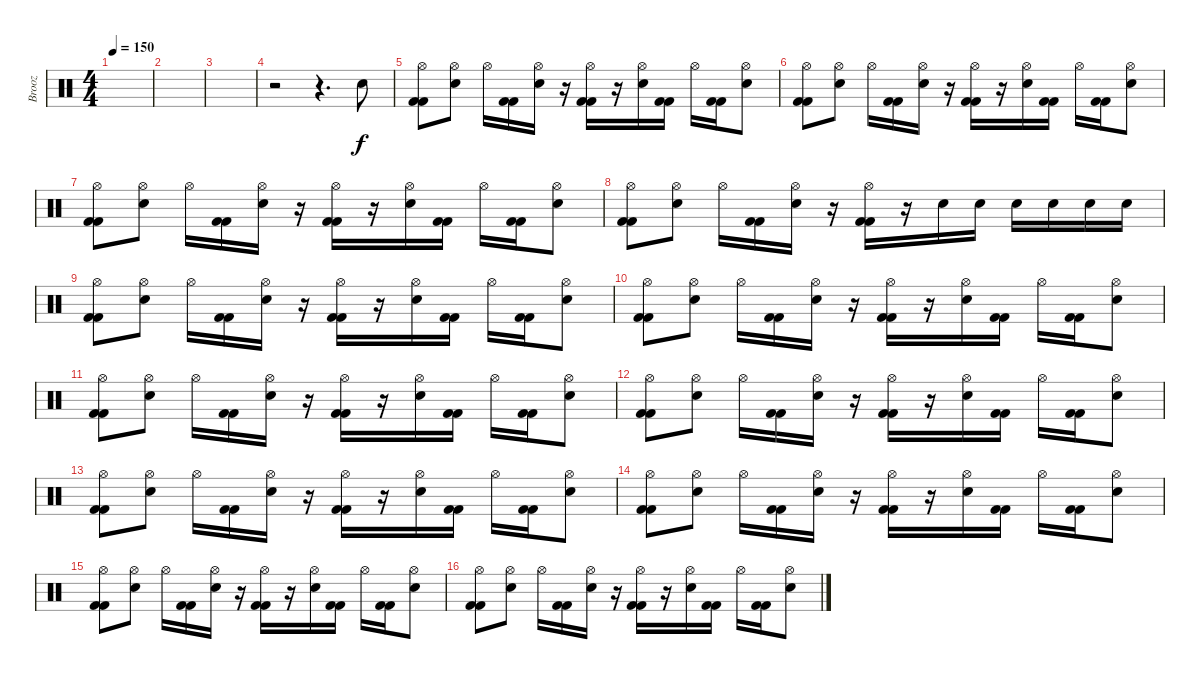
\track ("Brooz" "Brooz") {instrument percussion}
\staff {score}
\articulation defaults
\ts (4 4)
\tempo 150
\clef neutral
\ks c
|
|
|
r.2 r.4{d} "Electric Snare (hit)".8 |
("Hi-Hat (open)" "Kick (hit) 2" "Kick (hit) 2").8 ("Hi-Hat (open)" "Electric Snare (hit)").8 "Hi-Hat (open)".16 ("Kick (hit) 2" "Kick (hit) 2").16 ("Hi-Hat (open)" "Electric Snare (hit)").16 r.16 ("Hi-Hat (open)" "Kick (hit) 2" "Kick (hit) 2").16 r.16 ("Hi-Hat (open)" "Electric Snare (hit)").16 ("Kick (hit) 2" "Kick (hit) 2").16 "Hi-Hat (open)".16 ("Kick (hit) 2" "Kick (hit) 2").16 ("Hi-Hat (open)" "Electric Snare (hit)").8 |
("Hi-Hat (open)" "Kick (hit) 2" "Kick (hit) 2").8 ("Hi-Hat (open)" "Electric Snare (hit)").8 "Hi-Hat (open)".16 ("Kick (hit) 2" "Kick (hit) 2").16 ("Hi-Hat (open)" "Electric Snare (hit)").16 r.16 ("Hi-Hat (open)" "Kick (hit) 2" "Kick (hit) 2").16 r.16 ("Hi-Hat (open)" "Electric Snare (hit)").16 ("Kick (hit) 2" "Kick (hit) 2").16 "Hi-Hat (open)".16 ("Kick (hit) 2" "Kick (hit) 2").16 ("Hi-Hat (open)" "Electric Snare (hit)").8 |
("Hi-Hat (open)" "Kick (hit) 2" "Kick (hit) 2").8 ("Hi-Hat (open)" "Electric Snare (hit)").8 "Hi-Hat (open)".16 ("Kick (hit) 2" "Kick (hit) 2").16 ("Hi-Hat (open)" "Electric Snare (hit)").16 r.16 ("Hi-Hat (open)" "Kick (hit) 2" "Kick (hit) 2").16 r.16 ("Hi-Hat (open)" "Electric Snare (hit)").16 ("Kick (hit) 2" "Kick (hit) 2").16 "Hi-Hat (open)".16 ("Kick (hit) 2" "Kick (hit) 2").16 ("Hi-Hat (open)" "Electric Snare (hit)").8 |
("Hi-Hat (open)" "Kick (hit) 2" "Kick (hit) 2").8 ("Hi-Hat (open)" "Electric Snare (hit)").8 "Hi-Hat (open)".16 ("Kick (hit) 2" "Kick (hit) 2").16 ("Hi-Hat (open)" "Electric Snare (hit)").16 r.16 ("Hi-Hat (open)" "Kick (hit) 2" "Kick (hit) 2").16 r.16 "Electric Snare (hit)".16 "Electric Snare (hit)".16 "Electric Snare (hit)".16 "Electric Snare (hit)".16 "Electric Snare (hit)".16 "Electric Snare (hit)".16 |
("Hi-Hat (open)" "Kick (hit) 2" "Kick (hit) 2").8 ("Hi-Hat (open)" "Electric Snare (hit)").8 "Hi-Hat (open)".16 ("Kick (hit) 2" "Kick (hit) 2").16 ("Hi-Hat (open)" "Electric Snare (hit)").16 r.16 ("Hi-Hat (open)" "Kick (hit) 2" "Kick (hit) 2").16 r.16 ("Hi-Hat (open)" "Electric Snare (hit)").16 ("Kick (hit) 2" "Kick (hit) 2").16 "Hi-Hat (open)".16 ("Kick (hit) 2" "Kick (hit) 2").16 ("Hi-Hat (open)" "Electric Snare (hit)").8 |
("Hi-Hat (open)" "Kick (hit) 2" "Kick (hit) 2").8 ("Hi-Hat (open)" "Electric Snare (hit)").8 "Hi-Hat (open)".16 ("Kick (hit) 2" "Kick (hit) 2").16 ("Hi-Hat (open)" "Electric Snare (hit)").16 r.16 ("Hi-Hat (open)" "Kick (hit) 2" "Kick (hit) 2").16 r.16 ("Hi-Hat (open)" "Electric Snare (hit)").16 ("Kick (hit) 2" "Kick (hit) 2").16 "Hi-Hat (open)".16 ("Kick (hit) 2" "Kick (hit) 2").16 ("Hi-Hat (open)" "Electric Snare (hit)").8 |
("Hi-Hat (open)" "Kick (hit) 2" "Kick (hit) 2").8 ("Hi-Hat (open)" "Electric Snare (hit)").8 "Hi-Hat (open)".16 ("Kick (hit) 2" "Kick (hit) 2").16 ("Hi-Hat (open)" "Electric Snare (hit)").16 r.16 ("Hi-Hat (open)" "Kick (hit) 2" "Kick (hit) 2").16 r.16 ("Hi-Hat (open)" "Electric Snare (hit)").16 ("Kick (hit) 2" "Kick (hit) 2").16 "Hi-Hat (open)".16 ("Kick (hit) 2" "Kick (hit) 2").16 ("Hi-Hat (open)" "Electric Snare (hit)").8 |
("Hi-Hat (open)" "Kick (hit) 2" "Kick (hit) 2").8 ("Hi-Hat (open)" "Electric Snare (hit)").8 "Hi-Hat (open)".16 ("Kick (hit) 2" "Kick (hit) 2").16 ("Hi-Hat (open)" "Electric Snare (hit)").16 r.16 ("Hi-Hat (open)" "Kick (hit) 2" "Kick (hit) 2").16 r.16 ("Hi-Hat (open)" "Electric Snare (hit)").16 ("Kick (hit) 2" "Kick (hit) 2").16 "Hi-Hat (open)".16 ("Kick (hit) 2" "Kick (hit) 2").16 ("Hi-Hat (open)" "Electric Snare (hit)").8 |
("Hi-Hat (open)" "Kick (hit) 2" "Kick (hit) 2").8 ("Hi-Hat (open)" "Electric Snare (hit)").8 "Hi-Hat (open)".16 ("Kick (hit) 2" "Kick (hit) 2").16 ("Hi-Hat (open)" "Electric Snare (hit)").16 r.16 ("Hi-Hat (open)" "Kick (hit) 2" "Kick (hit) 2").16 r.16 ("Hi-Hat (open)" "Electric Snare (hit)").16 ("Kick (hit) 2" "Kick (hit) 2").16 "Hi-Hat (open)".16 ("Kick (hit) 2" "Kick (hit) 2").16 ("Hi-Hat (open)" "Electric Snare (hit)").8 |
("Hi-Hat (open)" "Kick (hit) 2" "Kick (hit) 2").8 ("Hi-Hat (open)" "Electric Snare (hit)").8 "Hi-Hat (open)".16 ("Kick (hit) 2" "Kick (hit) 2").16 ("Hi-Hat (open)" "Electric Snare (hit)").16 r.16 ("Hi-Hat (open)" "Kick (hit) 2" "Kick (hit) 2").16 r.16 ("Hi-Hat (open)" "Electric Snare (hit)").16 ("Kick (hit) 2" "Kick (hit) 2").16 "Hi-Hat (open)".16 ("Kick (hit) 2" "Kick (hit) 2").16 ("Hi-Hat (open)" "Electric Snare (hit)").8 |
("Hi-Hat (open)" "Kick (hit) 2" "Kick (hit) 2").8 ("Hi-Hat (open)" "Electric Snare (hit)").8 "Hi-Hat (open)".16 ("Kick (hit) 2" "Kick (hit) 2").16 ("Hi-Hat (open)" "Electric Snare (hit)").16 r.16 ("Hi-Hat (open)" "Kick (hit) 2" "Kick (hit) 2").16 r.16 ("Hi-Hat (open)" "Electric Snare (hit)").16 ("Kick (hit) 2" "Kick (hit) 2").16 "Hi-Hat (open)".16 ("Kick (hit) 2" "Kick (hit) 2").16 ("Hi-Hat (open)" "Electric Snare (hit)").8 |
("Hi-Hat (open)" "Kick (hit) 2" "Kick (hit) 2").8 ("Hi-Hat (open)" "Electric Snare (hit)").8 "Hi-Hat (open)".16 ("Kick (hit) 2" "Kick (hit) 2").16 ("Hi-Hat (open)" "Electric Snare (hit)").16 r.16 ("Hi-Hat (open)" "Kick (hit) 2" "Kick (hit) 2").16 r.16 ("Hi-Hat (open)" "Electric Snare (hit)").16 ("Kick (hit) 2" "Kick (hit) 2").16 "Hi-Hat (open)".16 ("Kick (hit) 2" "Kick (hit) 2").16 ("Hi-Hat (open)" "Electric Snare (hit)").8
